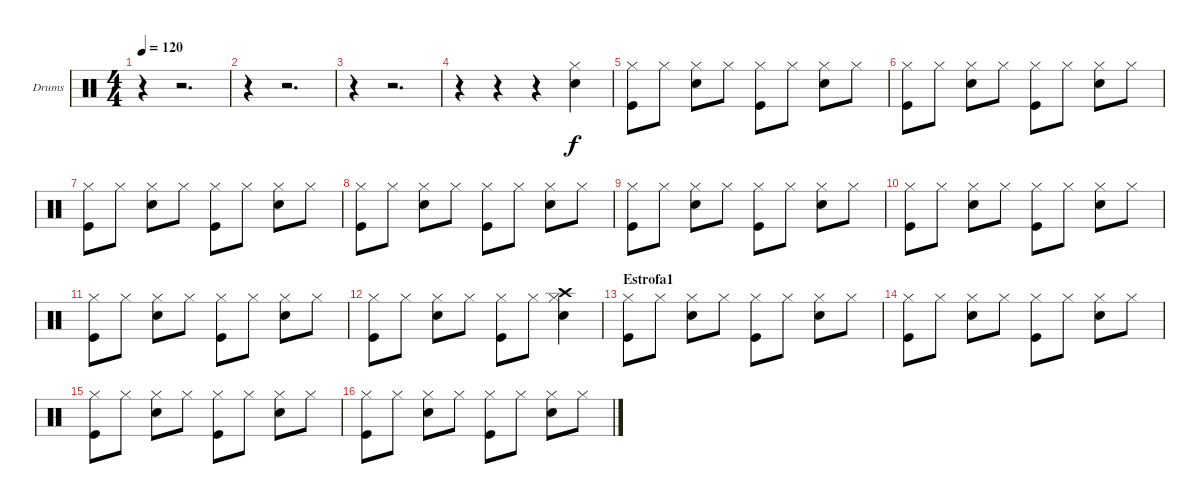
\bracketExtendMode groupsimilarinstruments
\firstSystemTrackNameOrientation horizontal
\otherSystemsTrackNameOrientation horizontal
\track ("Drumkit" "Drums") {instrument percussion}
\staff {score}
\articulation defaults
\ts (4 4)
\tempo 120
\clef neutral
\ks c
r.4{dy f} r.2{d} |
r.4 r.2{d} |
r.4 r.2{d} |
r.4 r.4 r.4 ("Snare (hit) 2" "Hi-Hat (closed)").4 |
("Hi-Hat (closed)" "Kick (hit)").8 "Hi-Hat (closed)".8 ("Hi-Hat (closed)" "Snare (hit) 2").8 "Hi-Hat (closed)".8 ("Hi-Hat (closed)" "Kick (hit)").8 "Hi-Hat (closed)".8 ("Hi-Hat (closed)" "Snare (hit) 2").8 "Hi-Hat (closed)".8 |
("Hi-Hat (closed)" "Kick (hit)").8 "Hi-Hat (closed)".8 ("Hi-Hat (closed)" "Snare (hit) 2").8 "Hi-Hat (closed)".8 ("Hi-Hat (closed)" "Kick (hit)").8 "Hi-Hat (closed)".8 ("Hi-Hat (closed)" "Snare (hit) 2").8 "Hi-Hat (closed)".8 |
("Hi-Hat (closed)" "Kick (hit)").8 "Hi-Hat (closed)".8 ("Hi-Hat (closed)" "Snare (hit) 2").8 "Hi-Hat (closed)".8 ("Hi-Hat (closed)" "Kick (hit)").8 "Hi-Hat (closed)".8 ("Hi-Hat (closed)" "Snare (hit) 2").8 "Hi-Hat (closed)".8 |
("Hi-Hat (closed)" "Kick (hit)").8 "Hi-Hat (closed)".8 ("Hi-Hat (closed)" "Snare (hit) 2").8 "Hi-Hat (closed)".8 ("Hi-Hat (closed)" "Kick (hit)").8 "Hi-Hat (closed)".8 ("Hi-Hat (closed)" "Snare (hit) 2").8 "Hi-Hat (closed)".8 |
("Hi-Hat (closed)" "Kick (hit)").8 "Hi-Hat (closed)".8 ("Hi-Hat (closed)" "Snare (hit) 2").8 "Hi-Hat (closed)".8 ("Hi-Hat (closed)" "Kick (hit)").8 "Hi-Hat (closed)".8 ("Hi-Hat (closed)" "Snare (hit) 2").8 "Hi-Hat (closed)".8 |
("Hi-Hat (closed)" "Kick (hit)").8 "Hi-Hat (closed)".8 ("Hi-Hat (closed)" "Snare (hit) 2").8 "Hi-Hat (closed)".8 ("Hi-Hat (closed)" "Kick (hit)").8 "Hi-Hat (closed)".8 ("Hi-Hat (closed)" "Snare (hit) 2").8 "Hi-Hat (closed)".8 |
("Hi-Hat (closed)" "Kick (hit)").8 "Hi-Hat (closed)".8 ("Hi-Hat (closed)" "Snare (hit) 2").8 "Hi-Hat (closed)".8 ("Hi-Hat (closed)" "Kick (hit)").8 "Hi-Hat (closed)".8 ("Hi-Hat (closed)" "Snare (hit) 2").8 "Hi-Hat (closed)".8 |
("Hi-Hat (closed)" "Kick (hit)").8 "Hi-Hat (closed)".8 ("Hi-Hat (closed)" "Snare (hit) 2").8 "Hi-Hat (closed)".8 ("Hi-Hat (closed)" "Kick (hit)").8 "Hi-Hat (closed)".8 ("Hi-Hat (closed)" "Snare (hit) 2" "Crash high (hit)").4 |
\section ("" "Estrofa1")
("Hi-Hat (closed)" "Kick (hit)").8 "Hi-Hat (closed)".8 ("Hi-Hat (closed)" "Snare (hit) 2").8 "Hi-Hat (closed)".8 ("Hi-Hat (closed)" "Kick (hit)").8 "Hi-Hat (closed)".8 ("Hi-Hat (closed)" "Snare (hit) 2").8 "Hi-Hat (closed)".8 |
("Hi-Hat (closed)" "Kick (hit)").8 "Hi-Hat (closed)".8 ("Hi-Hat (closed)" "Snare (hit) 2").8 "Hi-Hat (closed)".8 ("Hi-Hat (closed)" "Kick (hit)").8 "Hi-Hat (closed)".8 ("Hi-Hat (closed)" "Snare (hit) 2").8 "Hi-Hat (closed)".8 |
("Hi-Hat (closed)" "Kick (hit)").8 "Hi-Hat (closed)".8 ("Hi-Hat (closed)" "Snare (hit) 2").8 "Hi-Hat (closed)".8 ("Hi-Hat (closed)" "Kick (hit)").8 "Hi-Hat (closed)".8 ("Hi-Hat (closed)" "Snare (hit) 2").8 "Hi-Hat (closed)".8 |
("Hi-Hat (closed)" "Kick (hit)").8 "Hi-Hat (closed)".8 ("Hi-Hat (closed)" "Snare (hit) 2").8 "Hi-Hat (closed)".8 ("Hi-Hat (closed)" "Kick (hit)").8 "Hi-Hat (closed)".8 ("Hi-Hat (closed)" "Snare (hit) 2").8 "Hi-Hat (closed)".8
